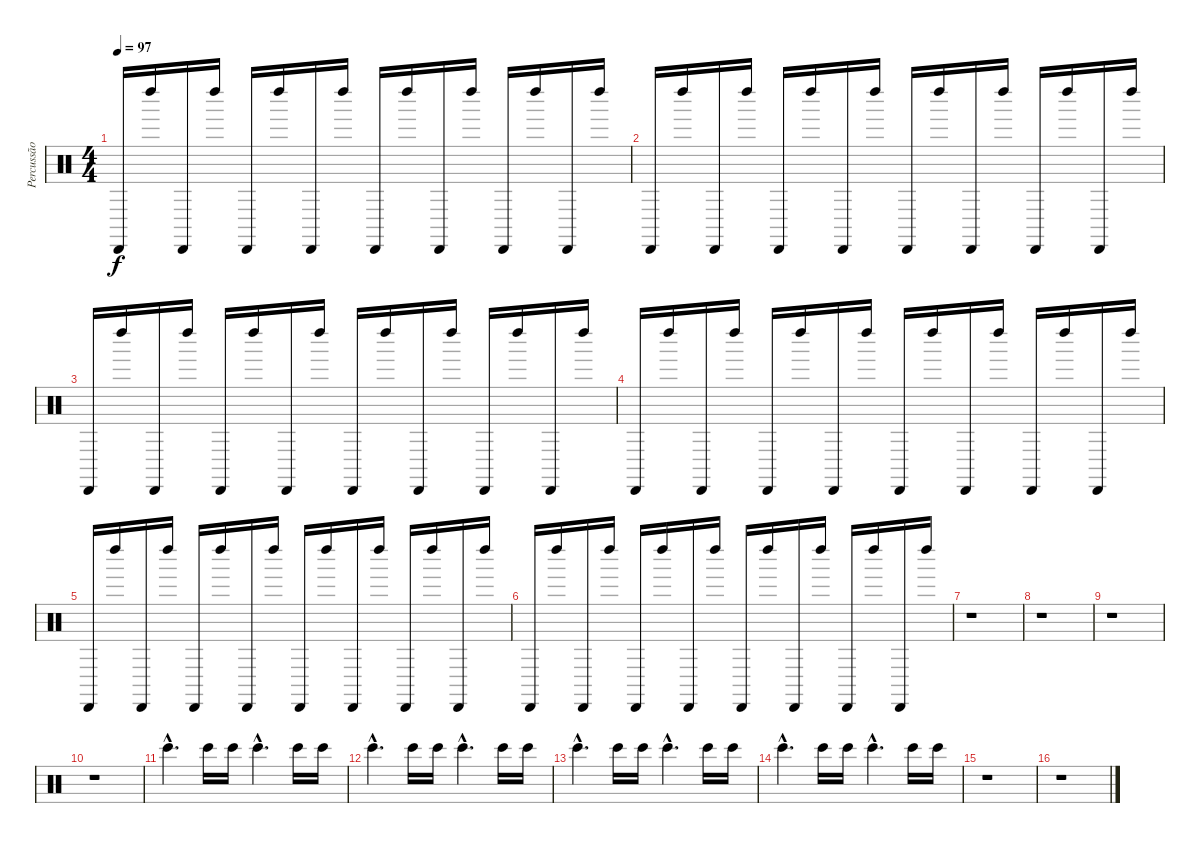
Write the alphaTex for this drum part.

\track ("Percussão" "Percussão") {instrument percussion}
\staff {score}
\articulation defaults
\ts (4 4)
\tempo 97
\clef neutral
\ks c "Cabasa (hit)".16{dy f} "Left Maraca (hit)".16 "Cabasa (hit)".16 "Left Maraca (hit)".16 "Cabasa (hit)".16 "Left Maraca (hit)".16 "Cabasa (hit)".16 "Left Maraca (hit)".16 "Cabasa (hit)".16 "Left Maraca (hit)".16 "Cabasa (hit)".16 "Left Maraca (hit)".16 "Cabasa (hit)".16 "Left Maraca (hit)".16 "Cabasa (hit)".16 "Left Maraca (hit)".16
|
"Cabasa (hit)".16 "Left Maraca (hit)".16 "Cabasa (hit)".16 "Left Maraca (hit)".16 "Cabasa (hit)".16 "Left Maraca (hit)".16 "Cabasa (hit)".16 "Left Maraca (hit)".16 "Cabasa (hit)".16 "Left Maraca (hit)".16 "Cabasa (hit)".16 "Left Maraca (hit)".16 "Cabasa (hit)".16 "Left Maraca (hit)".16 "Cabasa (hit)".16 "Left Maraca (hit)".16 |
"Cabasa (hit)".16 "Left Maraca (hit)".16 "Cabasa (hit)".16 "Left Maraca (hit)".16 "Cabasa (hit)".16 "Left Maraca (hit)".16 "Cabasa (hit)".16 "Left Maraca (hit)".16 "Cabasa (hit)".16 "Left Maraca (hit)".16 "Cabasa (hit)".16 "Left Maraca (hit)".16 "Cabasa (hit)".16 "Left Maraca (hit)".16 "Cabasa (hit)".16 "Left Maraca (hit)".16 |
"Cabasa (hit)".16 "Left Maraca (hit)".16 "Cabasa (hit)".16 "Left Maraca (hit)".16 "Cabasa (hit)".16 "Left Maraca (hit)".16 "Cabasa (hit)".16 "Left Maraca (hit)".16 "Cabasa (hit)".16 "Left Maraca (hit)".16 "Cabasa (hit)".16 "Left Maraca (hit)".16 "Cabasa (hit)".16 "Left Maraca (hit)".16 "Cabasa (hit)".16 "Left Maraca (hit)".16 |
"Cabasa (hit)".16 "Left Maraca (hit)".16 "Cabasa (hit)".16 "Left Maraca (hit)".16 "Cabasa (hit)".16 "Left Maraca (hit)".16 "Cabasa (hit)".16 "Left Maraca (hit)".16 "Cabasa (hit)".16 "Left Maraca (hit)".16 "Cabasa (hit)".16 "Left Maraca (hit)".16 "Cabasa (hit)".16 "Left Maraca (hit)".16 "Cabasa (hit)".16 "Left Maraca (hit)".16 |
"Cabasa (hit)".16 "Left Maraca (hit)".16 "Cabasa (hit)".16 "Left Maraca (hit)".16 "Cabasa (hit)".16 "Left Maraca (hit)".16 "Cabasa (hit)".16 "Left Maraca (hit)".16 "Cabasa (hit)".16 "Left Maraca (hit)".16 "Cabasa (hit)".16 "Left Maraca (hit)".16 "Cabasa (hit)".16 "Left Maraca (hit)".16 "Cabasa (hit)".16 "Left Maraca (hit)".16 |
r.1 |
r.1 |
r.1 |
r.1 |
"Bongo High (hit)"{hac}.4{d} "Bongo High (hit)".16 "Bongo High (hit)".16 "Bongo High (hit)"{hac}.4{d} "Bongo High (hit)".16 "Bongo High (hit)".16 |
"Bongo High (hit)"{hac}.4{d} "Bongo High (hit)".16 "Bongo High (hit)".16 "Bongo High (hit)"{hac}.4{d} "Bongo High (hit)".16 "Bongo High (hit)".16 |
"Bongo High (hit)"{hac}.4{d} "Bongo High (hit)".16 "Bongo High (hit)".16 "Bongo High (hit)"{hac}.4{d} "Bongo High (hit)".16 "Bongo High (hit)".16 |
"Bongo High (hit)"{hac}.4{d} "Bongo High (hit)".16 "Bongo High (hit)".16 "Bongo High (hit)"{hac}.4{d} "Bongo High (hit)".16 "Bongo High (hit)".16 |
r.1 |
r.1
